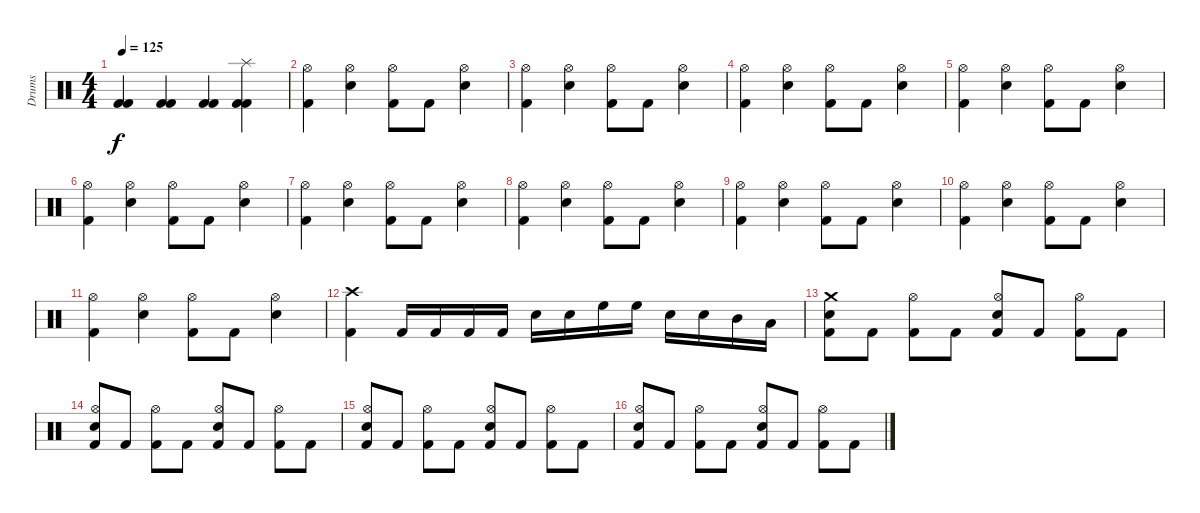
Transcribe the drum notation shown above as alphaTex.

\track ("Drums" "Drums") {instrument percussion}
\staff {score}
\articulation defaults
\ts (4 4)
\tempo 125
\clef neutral
\ks c
("Kick (hit) 2" "Kick (hit) 2").4{dy f} ("Kick (hit) 2" "Kick (hit) 2").4 ("Kick (hit) 2" "Kick (hit) 2").4 ("Splash (hit)" "Kick (hit) 2" "Kick (hit) 2").4 |
("Hi-Hat (open)" "Kick (hit) 2").4 ("Hi-Hat (open)" "Electric Snare (hit)").4 ("Hi-Hat (open)" "Kick (hit) 2").8 "Kick (hit) 2".8 ("Hi-Hat (open)" "Electric Snare (hit)").4 |
("Hi-Hat (open)" "Kick (hit) 2").4 ("Hi-Hat (open)" "Electric Snare (hit)").4 ("Hi-Hat (open)" "Kick (hit) 2").8 "Kick (hit) 2".8 ("Hi-Hat (open)" "Electric Snare (hit)").4 |
("Hi-Hat (open)" "Kick (hit) 2").4 ("Hi-Hat (open)" "Electric Snare (hit)").4 ("Hi-Hat (open)" "Kick (hit) 2").8 "Kick (hit) 2".8 ("Hi-Hat (open)" "Electric Snare (hit)").4 |
("Hi-Hat (open)" "Kick (hit) 2").4 ("Hi-Hat (open)" "Electric Snare (hit)").4 ("Hi-Hat (open)" "Kick (hit) 2").8 "Kick (hit) 2".8 ("Hi-Hat (open)" "Electric Snare (hit)").4 |
("Hi-Hat (open)" "Kick (hit) 2").4 ("Hi-Hat (open)" "Electric Snare (hit)").4 ("Hi-Hat (open)" "Kick (hit) 2").8 "Kick (hit) 2".8 ("Hi-Hat (open)" "Electric Snare (hit)").4 |
("Hi-Hat (open)" "Kick (hit) 2").4 ("Hi-Hat (open)" "Electric Snare (hit)").4 ("Hi-Hat (open)" "Kick (hit) 2").8 "Kick (hit) 2".8 ("Hi-Hat (open)" "Electric Snare (hit)").4 |
("Hi-Hat (open)" "Kick (hit) 2").4 ("Hi-Hat (open)" "Electric Snare (hit)").4 ("Hi-Hat (open)" "Kick (hit) 2").8 "Kick (hit) 2".8 ("Hi-Hat (open)" "Electric Snare (hit)").4 |
("Hi-Hat (open)" "Kick (hit) 2").4 ("Hi-Hat (open)" "Electric Snare (hit)").4 ("Hi-Hat (open)" "Kick (hit) 2").8 "Kick (hit) 2".8 ("Hi-Hat (open)" "Electric Snare (hit)").4 |
("Hi-Hat (open)" "Kick (hit) 2").4 ("Hi-Hat (open)" "Electric Snare (hit)").4 ("Hi-Hat (open)" "Kick (hit) 2").8 "Kick (hit) 2".8 ("Hi-Hat (open)" "Electric Snare (hit)").4 |
("Hi-Hat (open)" "Kick (hit) 2").4 ("Hi-Hat (open)" "Electric Snare (hit)").4 ("Hi-Hat (open)" "Kick (hit) 2").8 "Kick (hit) 2".8 ("Hi-Hat (open)" "Electric Snare (hit)").4 |
("Crash high (hit)" "Kick (hit) 2").4 "Kick (hit) 2".16 "Kick (hit) 2".16 "Kick (hit) 2".16 "Kick (hit) 2".16 "Electric Snare (hit)".16 "Electric Snare (hit)".16 "High Floor Tom (hit)".16 "High Floor Tom (hit)".16 "Electric Snare (hit)".16 "Electric Snare (hit)".16 "Mid Tom (hit)".16 "Low Tom (hit)".16 |
("Crash medium (hit)" "Electric Snare (hit)" "Kick (hit) 2").8 "Kick (hit) 2".8 ("Hi-Hat (open)" "Kick (hit) 2").8 "Kick (hit) 2".8 ("Hi-Hat (open)" "Electric Snare (hit)" "Kick (hit) 2").8 "Kick (hit) 2".8 ("Hi-Hat (open)" "Kick (hit) 2").8 "Kick (hit) 2".8 |
("Hi-Hat (open)" "Electric Snare (hit)" "Kick (hit) 2").8 "Kick (hit) 2".8 ("Hi-Hat (open)" "Kick (hit) 2").8 "Kick (hit) 2".8 ("Hi-Hat (open)" "Electric Snare (hit)" "Kick (hit) 2").8 "Kick (hit) 2".8 ("Hi-Hat (open)" "Kick (hit) 2").8 "Kick (hit) 2".8 |
("Hi-Hat (open)" "Electric Snare (hit)" "Kick (hit) 2").8 "Kick (hit) 2".8 ("Hi-Hat (open)" "Kick (hit) 2").8 "Kick (hit) 2".8 ("Hi-Hat (open)" "Electric Snare (hit)" "Kick (hit) 2").8 "Kick (hit) 2".8 ("Hi-Hat (open)" "Kick (hit) 2").8 "Kick (hit) 2".8 |
("Hi-Hat (open)" "Electric Snare (hit)" "Kick (hit) 2").8 "Kick (hit) 2".8 ("Hi-Hat (open)" "Kick (hit) 2").8 "Kick (hit) 2".8 ("Hi-Hat (open)" "Electric Snare (hit)" "Kick (hit) 2").8 "Kick (hit) 2".8 ("Hi-Hat (open)" "Kick (hit) 2").8 "Kick (hit) 2".8
